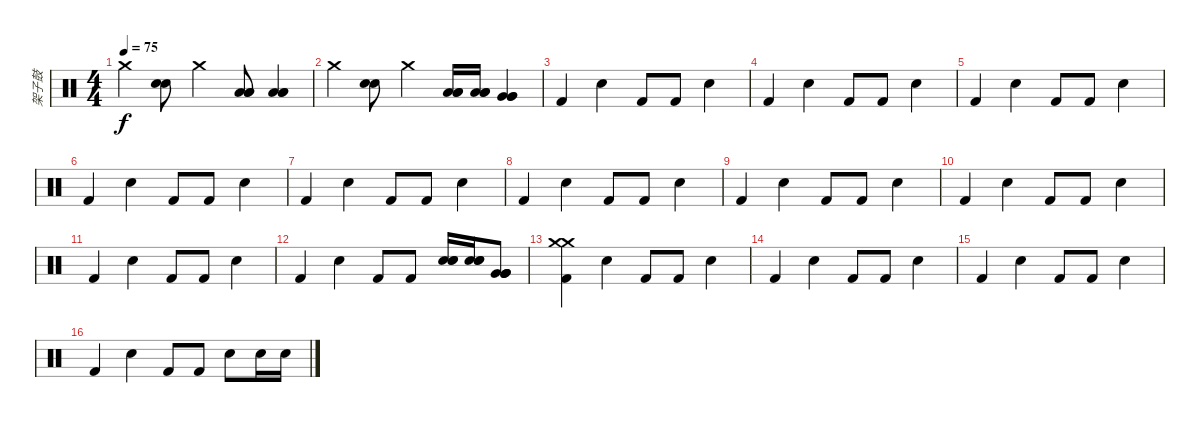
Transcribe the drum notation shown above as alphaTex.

\track ("架子鼓" "架子鼓") {instrument percussion}
\staff {score}
\articulation defaults
\ts (4 4)
\tempo 75
\clef neutral
\ks c "Crash medium (hit)".4{dy f}
("Snare (hit) 2" "Electric Snare (hit)").8 "Crash medium (hit)".4 ("Low Tom (hit)" "Low Tom (hit)" "Low Tom (hit)").8 ("Low Tom (hit)" "Low Tom (hit)" "Low Tom (hit)").4 |
"Crash medium (hit)".4 ("Snare (hit) 2" "Electric Snare (hit)").8 "Crash medium (hit)".4 ("Low Tom (hit)" "Low Tom (hit)" "Low Tom (hit)").16 ("Low Tom (hit)" "Low Tom (hit)" "Low Tom (hit)").16 ("Very Low Tom (hit)" "Very Low Tom (hit)" "Very Low Tom (hit)").4 |
"Kick (hit) 2".4 "Electric Snare (hit)".4 "Kick (hit) 2".8 "Kick (hit) 2".8 "Electric Snare (hit)".4 |
"Kick (hit) 2".4 "Electric Snare (hit)".4 "Kick (hit) 2".8 "Kick (hit) 2".8 "Electric Snare (hit)".4 |
"Kick (hit) 2".4 "Electric Snare (hit)".4 "Kick (hit) 2".8 "Kick (hit) 2".8 "Electric Snare (hit)".4 |
"Kick (hit) 2".4 "Electric Snare (hit)".4 "Kick (hit) 2".8 "Kick (hit) 2".8 "Electric Snare (hit)".4 |
"Kick (hit) 2".4 "Electric Snare (hit)".4 "Kick (hit) 2".8 "Kick (hit) 2".8 "Electric Snare (hit)".4 |
"Kick (hit) 2".4 "Electric Snare (hit)".4 "Kick (hit) 2".8 "Kick (hit) 2".8 "Electric Snare (hit)".4 |
"Kick (hit) 2".4 "Electric Snare (hit)".4 "Kick (hit) 2".8 "Kick (hit) 2".8 "Electric Snare (hit)".4 |
"Kick (hit) 2".4 "Electric Snare (hit)".4 "Kick (hit) 2".8 "Kick (hit) 2".8 "Electric Snare (hit)".4 |
"Kick (hit) 2".4 "Electric Snare (hit)".4 "Kick (hit) 2".8 "Kick (hit) 2".8 "Electric Snare (hit)".4 |
"Kick (hit) 2".4 "Electric Snare (hit)".4 "Kick (hit) 2".8 "Kick (hit) 2".8 ("Electric Snare (hit)" "Electric Snare (hit)" "Electric Snare (hit)").16 ("Electric Snare (hit)" "Electric Snare (hit)" "Electric Snare (hit)").16 ("Very Low Tom (hit)" "Very Low Tom (hit)" "Very Low Tom (hit)" "Very Low Tom (hit)").8 |
("Kick (hit) 2" "Crash medium (hit)" "Crash medium (hit)").4 "Electric Snare (hit)".4 "Kick (hit) 2".8 "Kick (hit) 2".8 "Electric Snare (hit)".4 |
"Kick (hit) 2".4 "Electric Snare (hit)".4 "Kick (hit) 2".8 "Kick (hit) 2".8 "Electric Snare (hit)".4 |
"Kick (hit) 2".4 "Electric Snare (hit)".4 "Kick (hit) 2".8 "Kick (hit) 2".8 "Electric Snare (hit)".4 |
"Kick (hit) 2".4 "Electric Snare (hit)".4 "Kick (hit) 2".8 "Kick (hit) 2".8 "Electric Snare (hit)".8 "Electric Snare (hit)".16 "Electric Snare (hit)".16
